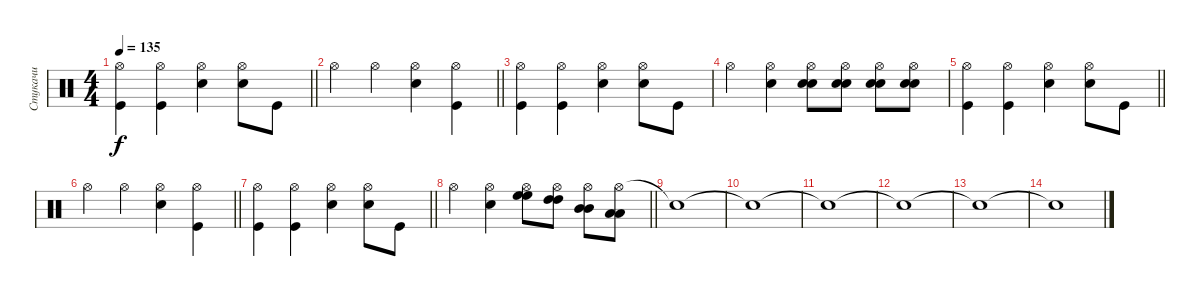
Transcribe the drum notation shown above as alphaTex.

\track ("Стукачи" "Стукачи") {instrument percussion}
\staff {score}
\articulation defaults
\ts (4 4)
\tempo 135
\clef neutral
\barLineRight lightlight
\ks c
("Hi-Hat (open)" "Kick (hit)").4{dy f} ("Hi-Hat (open)" "Kick (hit)").4 ("Hi-Hat (open)" "Snare (hit) 2").4 ("Hi-Hat (open)" "Snare (hit) 2").8 "Kick (hit)".8 |
\barLineRight lightlight "Hi-Hat (open)".4 "Hi-Hat (open)".4
("Hi-Hat (open)" "Snare (hit) 2").4 ("Hi-Hat (open)" "Kick (hit)").4 |
("Hi-Hat (open)" "Kick (hit)").4 ("Hi-Hat (open)" "Kick (hit)").4 ("Hi-Hat (open)" "Snare (hit) 2").4 ("Hi-Hat (open)" "Snare (hit) 2").8 "Kick (hit)".8 |
"Hi-Hat (open)".4 ("Hi-Hat (open)" "Snare (hit) 2").4 ("Hi-Hat (open)" "Snare (hit) 2" "Snare (hit) 2").8 ("Hi-Hat (open)" "Snare (hit) 2" "Snare (hit) 2").8 ("Hi-Hat (open)" "Snare (hit) 2" "Snare (hit) 2").8 ("Hi-Hat (open)" "Snare (hit) 2" "Snare (hit) 2").8 |
\barLineRight lightlight
("Hi-Hat (open)" "Kick (hit)").4 ("Hi-Hat (open)" "Kick (hit)").4 ("Hi-Hat (open)" "Snare (hit) 2").4 ("Hi-Hat (open)" "Snare (hit) 2").8 "Kick (hit)".8 |
\barLineRight lightlight "Hi-Hat (open)".4 "Hi-Hat (open)".4
("Hi-Hat (open)" "Snare (hit) 2").4 ("Hi-Hat (open)" "Kick (hit)").4 |
\barLineRight lightlight
("Hi-Hat (open)" "Kick (hit)").4 ("Hi-Hat (open)" "Kick (hit)").4 ("Hi-Hat (open)" "Snare (hit) 2").4 ("Hi-Hat (open)" "Snare (hit) 2").8 "Kick (hit)".8 |
\barLineRight lightlight "Hi-Hat (open)".4
("Hi-Hat (open)" "Snare (hit) 2").4 ("Hi-Hat (open)" "High Floor Tom (hit)" "High Floor Tom (hit)").8 ("Hi-Hat (open)" "High Tom (hit)" "High Tom (hit)").8 ("Hi-Hat (open)" "Mid Tom (hit)" "Mid Tom (hit)").8 ("Hi-Hat (open)" "Low Tom (hit)" "Low Tom (hit)").8 |
"Snare (hit)"{t}.1 |
"Snare (hit)"{t}.1 |
"Snare (hit)"{t}.1 |
"Snare (hit)"{t}.1 |
"Snare (hit)"{t}.1 |
"Snare (hit)"{t}.1
